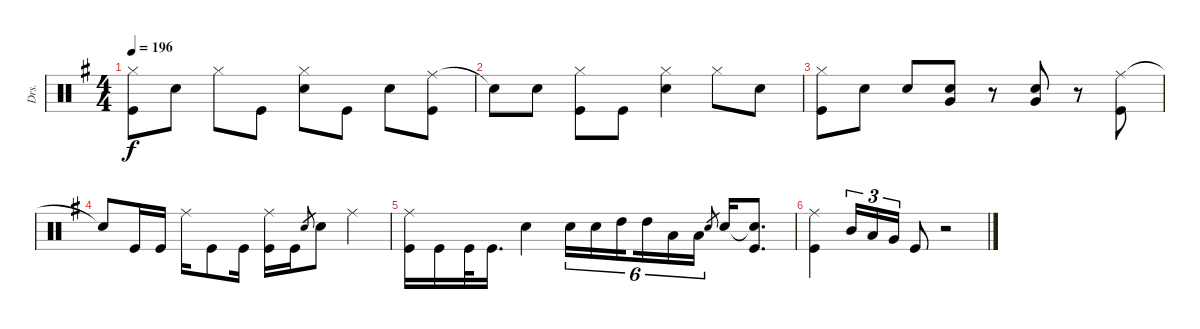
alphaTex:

\track ("Drs." "Drs.") {instrument percussion}
\staff {score}
\articulation defaults
\ts (4 4)
\tempo 196
\clef neutral
\ks g
("Hi-Hat (closed)" "Kick (hit)").8{dy f} "Snare (hit) 2".8 "Hi-Hat (closed)".8 "Kick (hit)".8 ("Hi-Hat (closed)" "Snare (hit) 2").8 "Kick (hit)".8 "Snare (hit) 2".8 ("Ride (middle)" "Kick (hit)").8 |
"Snare (hit)"{t}.8 "Snare (hit) 2".8 ("Hi-Hat (closed)" "Kick (hit)").8 "Kick (hit)".8 ("Hi-Hat (closed)" "Snare (hit) 2").4 "Hi-Hat (closed)".8 "Snare (hit) 2".8 |
("Hi-Hat (closed)" "Kick (hit)").8 "Snare (hit) 2".8 "Snare (hit) 2".8 ("Very Low Tom (hit)" "Snare (hit) 2").8 r.8 ("Very Low Tom (hit)" "Snare (hit) 2").8 r.8 ("Ride (middle)" "Kick (hit)").8 |
"Snare (hit)"{t}.8 "Kick (hit)".16 "Kick (hit)".16 "Ride (middle)".16 "Kick (hit)".8 "Kick (hit)".16 ("Ride (middle)" "Kick (hit)").16 "Kick (hit)".16 "Snare (hit) 2".8{gr} "Snare (hit) 2".8 "Ride (middle)".4 |
("Ride (middle)" "Kick (hit)").16 "Kick (hit)".16 "Kick (hit)".32 "Kick (hit)".16{d} "Snare (hit) 2".4 "Snare (hit) 2".16{tu (6 4)} "Snare (hit) 2".16{tu (6 4)} "High Tom (hit)".16{tu (6 4) beam splitsecondary} "High Tom (hit)".16{tu (6 4)} "Low Tom (hit)".16{tu (6 4)} "Low Tom (hit)".16{tu (6 4)} "Snare (hit) 2".8{gr} "Snare (hit) 2".16 ("Snare (hit)"{t} "Kick (hit)").8{d} |
("Ride (middle)" "Kick (hit)").4 "Mid Tom (hit)".16{tu (3 2)} "Low Tom (hit)".16{tu (3 2)} "Very Low Tom (hit)".16{tu (3 2)} "Kick (hit)".8 r.2
